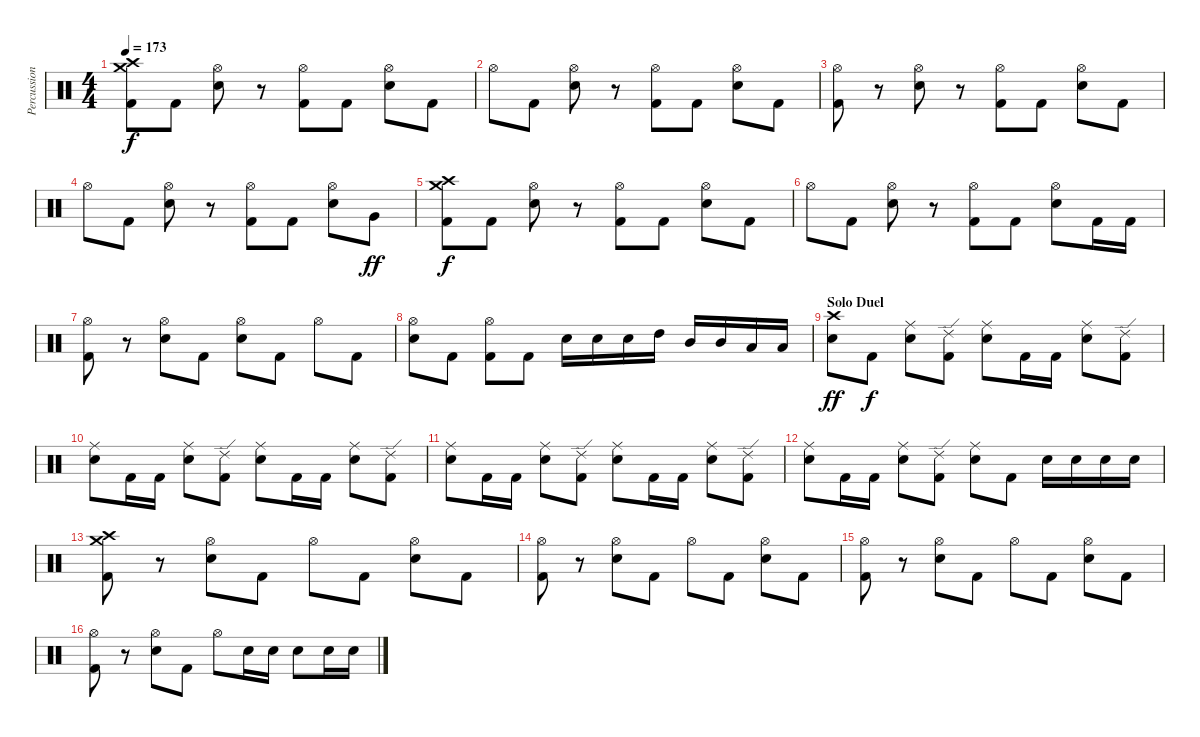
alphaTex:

\track ("Percussions" "Percussion") {instrument percussion}
\staff {score}
\articulation defaults
\ts (4 4)
\tempo 173
\clef neutral
\ks c
("Crash high (hit)" "Crash medium (hit)" "Kick (hit) 2").8{dy f} "Kick (hit) 2".8 ("Hi-Hat (open)" "Electric Snare (hit)").8 r.8 ("Hi-Hat (open)" "Kick (hit) 2").8 "Kick (hit) 2".8 ("Hi-Hat (open)" "Electric Snare (hit)").8 "Kick (hit) 2".8 |
"Hi-Hat (open)".8 "Kick (hit) 2".8 ("Hi-Hat (open)" "Electric Snare (hit)").8 r.8 ("Hi-Hat (open)" "Kick (hit) 2").8 "Kick (hit) 2".8 ("Hi-Hat (open)" "Electric Snare (hit)").8 "Kick (hit) 2".8 |
("Hi-Hat (open)" "Kick (hit) 2").8 r.8 ("Hi-Hat (open)" "Electric Snare (hit)").8 r.8 ("Hi-Hat (open)" "Kick (hit) 2").8 "Kick (hit) 2".8 ("Hi-Hat (open)" "Electric Snare (hit)").8 "Kick (hit) 2".8 |
"Hi-Hat (open)".8 "Kick (hit) 2".8 ("Hi-Hat (open)" "Electric Snare (hit)").8 r.8 ("Hi-Hat (open)" "Kick (hit) 2").8 "Kick (hit) 2".8 ("Hi-Hat (open)" "Electric Snare (hit)").8 "Very Low Tom (hit)".8{dy ff} |
("Crash high (hit)" "Crash medium (hit)" "Kick (hit) 2").8{dy f} "Kick (hit) 2".8 ("Hi-Hat (open)" "Electric Snare (hit)").8 r.8 ("Hi-Hat (open)" "Kick (hit) 2").8 "Kick (hit) 2".8 ("Hi-Hat (open)" "Electric Snare (hit)").8 "Kick (hit) 2".8 |
"Hi-Hat (open)".8 "Kick (hit) 2".8 ("Hi-Hat (open)" "Electric Snare (hit)").8 r.8 ("Hi-Hat (open)" "Kick (hit) 2").8 "Kick (hit) 2".8 ("Hi-Hat (open)" "Electric Snare (hit)").8 "Kick (hit) 2".16 "Kick (hit) 2".16 |
("Hi-Hat (open)" "Kick (hit) 2").8 r.8 ("Hi-Hat (open)" "Electric Snare (hit)").8 "Kick (hit) 2".8 ("Hi-Hat (open)" "Electric Snare (hit)").8 "Kick (hit) 2".8 "Hi-Hat (open)".8 "Kick (hit) 2".8 |
("Hi-Hat (open)" "Electric Snare (hit)").8 "Kick (hit) 2".8 ("Hi-Hat (open)" "Kick (hit) 2").8 "Kick (hit) 2".8 "Electric Snare (hit)".16 "Electric Snare (hit)".16 "Electric Snare (hit)".16 "High Tom (hit)".16 "Mid Tom (hit)".16 "Mid Tom (hit)".16 "Low Tom (hit)".16 "Low Tom (hit)".16 |
\section ("" "Solo Duel")
("Crash high (hit)" "Electric Snare (hit)").8{dy ff} "Kick (hit) 2".8{dy f} ("Ride (middle)" "Electric Snare (hit)").8 ("Ride (edge) 2" "Kick (hit) 2").8 ("Ride (middle)" "Electric Snare (hit)").8 "Kick (hit) 2".16 "Kick (hit) 2".16 ("Ride (middle)" "Electric Snare (hit)").8 ("Ride (edge) 2" "Kick (hit) 2").8 |
("Ride (middle)" "Electric Snare (hit)").8 "Kick (hit) 2".16 "Kick (hit) 2".16 ("Ride (middle)" "Electric Snare (hit)").8 ("Ride (edge) 2" "Kick (hit) 2").8 ("Ride (middle)" "Electric Snare (hit)").8 "Kick (hit) 2".16 "Kick (hit) 2".16 ("Ride (middle)" "Electric Snare (hit)").8 ("Ride (edge) 2" "Kick (hit) 2").8 |
("Ride (middle)" "Electric Snare (hit)").8 "Kick (hit) 2".16 "Kick (hit) 2".16 ("Ride (middle)" "Electric Snare (hit)").8 ("Ride (edge) 2" "Kick (hit) 2").8 ("Ride (middle)" "Electric Snare (hit)").8 "Kick (hit) 2".16 "Kick (hit) 2".16 ("Ride (middle)" "Electric Snare (hit)").8 ("Ride (edge) 2" "Kick (hit) 2").8 |
("Ride (middle)" "Electric Snare (hit)").8 "Kick (hit) 2".16 "Kick (hit) 2".16 ("Ride (middle)" "Electric Snare (hit)").8 ("Ride (edge) 2" "Kick (hit) 2").8 ("Ride (middle)" "Electric Snare (hit)").8 "Kick (hit) 2".8 "Electric Snare (hit)".16 "Electric Snare (hit)".16 "Electric Snare (hit)".16 "Electric Snare (hit)".16 |
("Crash high (hit)" "Crash medium (hit)" "Kick (hit) 2").8 r.8 ("Hi-Hat (open)" "Electric Snare (hit)").8 "Kick (hit) 2".8 "Hi-Hat (open)".8 "Kick (hit) 2".8 ("Hi-Hat (open)" "Electric Snare (hit)").8 "Kick (hit) 2".8 |
("Hi-Hat (open)" "Kick (hit) 2").8 r.8 ("Hi-Hat (open)" "Electric Snare (hit)").8 "Kick (hit) 2".8 "Hi-Hat (open)".8 "Kick (hit) 2".8 ("Hi-Hat (open)" "Electric Snare (hit)").8 "Kick (hit) 2".8 |
("Hi-Hat (open)" "Kick (hit) 2").8 r.8 ("Hi-Hat (open)" "Electric Snare (hit)").8 "Kick (hit) 2".8 "Hi-Hat (open)".8 "Kick (hit) 2".8 ("Hi-Hat (open)" "Electric Snare (hit)").8 "Kick (hit) 2".8 |
("Hi-Hat (open)" "Kick (hit) 2").8 r.8 ("Hi-Hat (open)" "Electric Snare (hit)").8 "Kick (hit) 2".8 "Hi-Hat (open)".8 "Electric Snare (hit)".16 "Electric Snare (hit)".16 "Electric Snare (hit)".8 "Electric Snare (hit)".16 "Electric Snare (hit)".16
